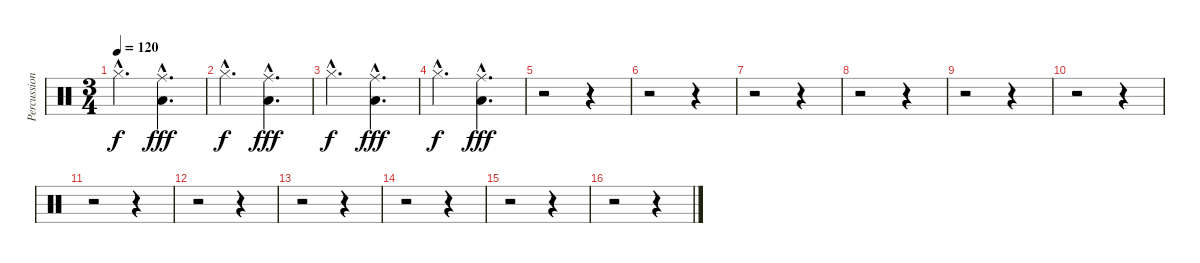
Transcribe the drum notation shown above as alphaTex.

\track ("Percussions" "Percussion") {instrument percussion}
\staff {score}
\articulation defaults
\ts (3 4)
\tempo 120
\clef neutral
\ks c "Hi-Hat (closed)"{hac}.4{d dy f}
("Ride (middle)"{hac} "Low Tom (hit)"{hac}).4{d dy fff} |
"Hi-Hat (closed)"{hac}.4{d dy f} ("Ride (middle)"{hac} "Low Tom (hit)"{hac}).4{d dy fff} |
"Hi-Hat (closed)"{hac}.4{d dy f} ("Ride (middle)"{hac} "Low Tom (hit)"{hac}).4{d dy fff} |
"Hi-Hat (closed)"{hac}.4{d dy f} ("Ride (middle)"{hac} "Low Tom (hit)"{hac}).4{d dy fff} |
r.2 r.4 |
r.2 r.4 |
r.2 r.4 |
r.2 r.4 |
r.2 r.4 |
r.2 r.4 |
r.2 r.4 |
r.2 r.4 |
r.2 r.4 |
r.2 r.4 |
r.2 r.4 |
r.2 r.4
